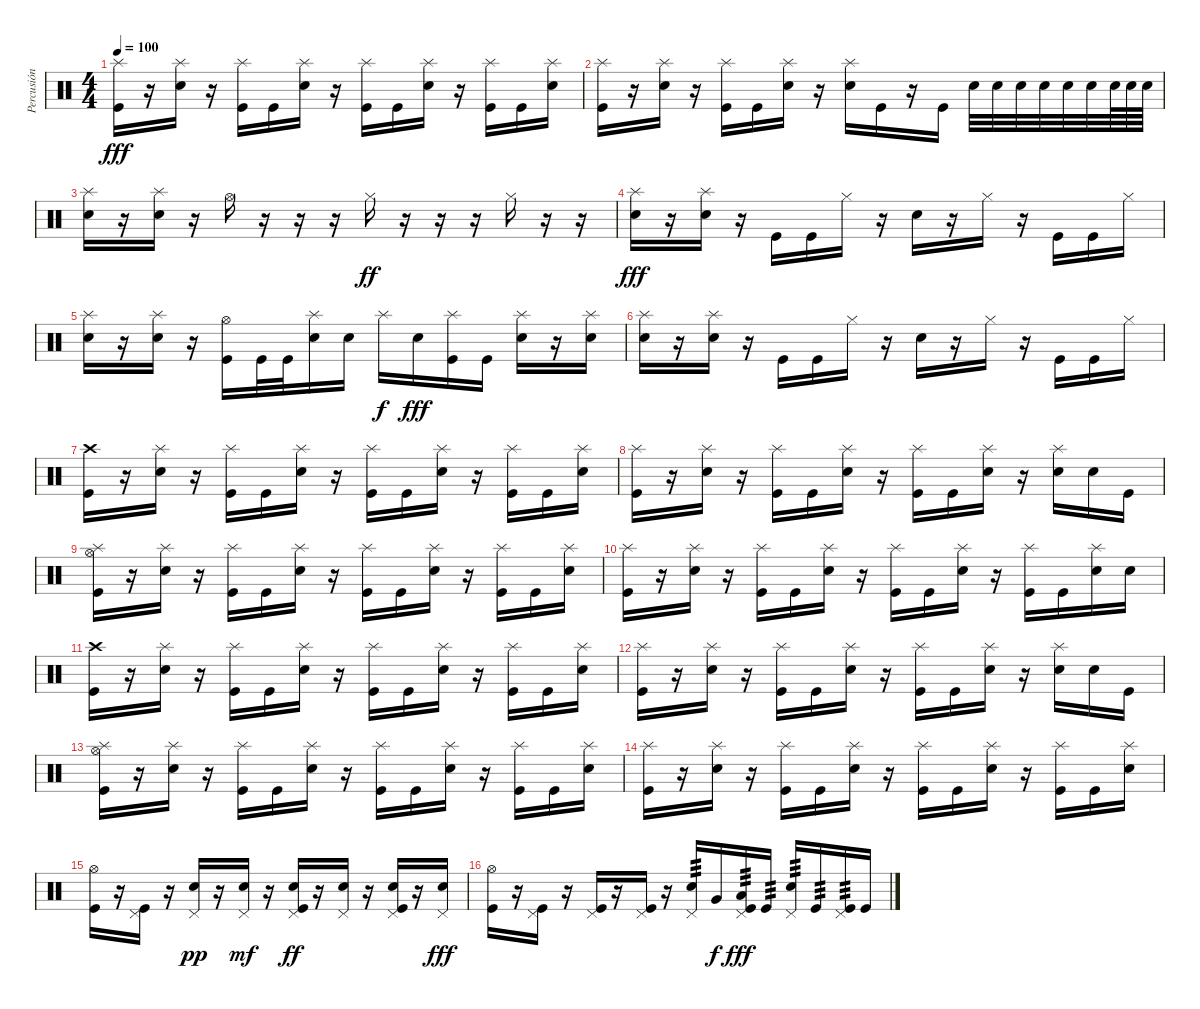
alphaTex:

\track ("Percusión" "Percusión") {instrument percussion}
\staff {score}
\articulation defaults
\ts (4 4)
\tempo 100
\clef neutral
\ks c
("Splash (hit)" "Kick (hit)").16{dy fff} r.16 ("Splash (hit)" "Snare (hit) 2").16 r.16 ("Splash (hit)" "Kick (hit)").16 "Kick (hit)".16 ("Splash (hit)" "Snare (hit) 2").16 r.16 ("Splash (hit)" "Kick (hit)").16 "Kick (hit)".16 ("Splash (hit)" "Snare (hit) 2").16 r.16 ("Splash (hit)" "Kick (hit)").16 "Kick (hit)".16 ("Splash (hit)" "Snare (hit) 2").16 |
("Splash (hit)" "Kick (hit)").16 r.16 ("Splash (hit)" "Snare (hit) 2").16 r.16 ("Splash (hit)" "Kick (hit)").16 "Kick (hit)".16 ("Splash (hit)" "Snare (hit) 2").16 r.16 ("Splash (hit)" "Snare (hit) 2").16 "Kick (hit)".16 r.16 "Kick (hit)".16 "Snare (hit) 2".32 "Snare (hit) 2".32 "Snare (hit) 2".32 "Snare (hit) 2".32 "Snare (hit) 2".32 "Snare (hit) 2".32 "Snare (hit) 2".64 "Snare (hit) 2".64 "Snare (hit) 2".64 |
("Splash (hit)" "Snare (hit) 2").16 r.16 ("Splash (hit)" "Snare (hit) 2").16 r.16 "Hi-Hat (open)".16 r.16 r.16 r.16 "Hi-Hat (closed)".16{dy ff} r.16 r.16 r.16 "Hi-Hat (closed)".16 r.16 r.16 |
("Splash (hit)" "Snare (hit) 2").16{dy fff} r.16 ("Splash (hit)" "Snare (hit) 2").16 r.16 "Kick (hit)".16 "Kick (hit)".16 "Hi-Hat (closed)".16 r.16 "Snare (hit) 2".16 r.16 "Hi-Hat (closed)".16 r.16 "Kick (hit)".16 "Kick (hit)".16 "Hi-Hat (closed)".16 |
("Splash (hit)" "Snare (hit) 2").16 r.16 ("Splash (hit)" "Snare (hit) 2").16 r.16 ("Hi-Hat (open)" "Kick (hit)").16 "Kick (hit)".32 "Kick (hit)".32 ("Splash (hit)" "Snare (hit) 2").16 "Snare (hit) 2".16 "Splash (hit)".16{dy f} "Snare (hit) 2".16{dy fff} ("Splash (hit)" "Kick (hit)").16 "Kick (hit)".16 ("Splash (hit)" "Snare (hit) 2").16 r.16 ("Splash (hit)" "Snare (hit) 2").16 |
("Splash (hit)" "Snare (hit) 2").16 r.16 ("Splash (hit)" "Snare (hit) 2").16 r.16 "Kick (hit)".16 "Kick (hit)".16 "Hi-Hat (closed)".16 r.16 "Snare (hit) 2".16 r.16 "Hi-Hat (closed)".16 r.16 "Kick (hit)".16 "Kick (hit)".16 "Hi-Hat (closed)".16 |
("Crash high (hit)" "Kick (hit)").16 r.16 ("Splash (hit)" "Snare (hit) 2").16 r.16 ("Splash (hit)" "Kick (hit)").16 "Kick (hit)".16 ("Splash (hit)" "Snare (hit) 2").16 r.16 ("Splash (hit)" "Kick (hit)").16 "Kick (hit)".16 ("Splash (hit)" "Snare (hit) 2").16 r.16 ("Splash (hit)" "Kick (hit)").16 "Kick (hit)".16 ("Splash (hit)" "Snare (hit) 2").16 |
("Splash (hit)" "Kick (hit)").16 r.16 ("Splash (hit)" "Snare (hit) 2").16 r.16 ("Splash (hit)" "Kick (hit)").16 "Kick (hit)".16 ("Splash (hit)" "Snare (hit) 2").16 r.16 ("Splash (hit)" "Kick (hit)").16 "Kick (hit)".16 ("Splash (hit)" "Snare (hit) 2").16 r.16 ("Splash (hit)" "Snare (hit) 2").16 "Snare (hit) 2".16 "Kick (hit)".16 |
("Splash (hit)" "Hi-Hat (open)" "Kick (hit)").16 r.16 ("Splash (hit)" "Snare (hit) 2").16 r.16 ("Splash (hit)" "Kick (hit)").16 "Kick (hit)".16 ("Splash (hit)" "Snare (hit) 2").16 r.16 ("Splash (hit)" "Kick (hit)").16 "Kick (hit)".16 ("Splash (hit)" "Snare (hit) 2").16 r.16 ("Splash (hit)" "Kick (hit)").16 "Kick (hit)".16 ("Splash (hit)" "Snare (hit) 2").16 |
("Splash (hit)" "Kick (hit)").16 r.16 ("Splash (hit)" "Snare (hit) 2").16 r.16 ("Splash (hit)" "Kick (hit)").16 "Kick (hit)".16 ("Splash (hit)" "Snare (hit) 2").16 r.16 ("Splash (hit)" "Kick (hit)").16 "Kick (hit)".16 ("Splash (hit)" "Snare (hit) 2").16 r.16 ("Splash (hit)" "Kick (hit)").16 "Kick (hit)".16 ("Splash (hit)" "Snare (hit) 2").16 "Snare (hit) 2".16 |
("Crash high (hit)" "Kick (hit)").16 r.16 ("Splash (hit)" "Snare (hit) 2").16 r.16 ("Splash (hit)" "Kick (hit)").16 "Kick (hit)".16 ("Splash (hit)" "Snare (hit) 2").16 r.16 ("Splash (hit)" "Kick (hit)").16 "Kick (hit)".16 ("Splash (hit)" "Snare (hit) 2").16 r.16 ("Splash (hit)" "Kick (hit)").16 "Kick (hit)".16 ("Splash (hit)" "Snare (hit) 2").16 |
("Splash (hit)" "Kick (hit)").16 r.16 ("Splash (hit)" "Snare (hit) 2").16 r.16 ("Splash (hit)" "Kick (hit)").16 "Kick (hit)".16 ("Splash (hit)" "Snare (hit) 2").16 r.16 ("Splash (hit)" "Kick (hit)").16 "Kick (hit)".16 ("Splash (hit)" "Snare (hit) 2").16 r.16 ("Splash (hit)" "Snare (hit) 2").16 "Snare (hit) 2".16 "Kick (hit)".16 |
("Splash (hit)" "Hi-Hat (open)" "Kick (hit)").16 r.16 ("Splash (hit)" "Snare (hit) 2").16 r.16 ("Splash (hit)" "Kick (hit)").16 "Kick (hit)".16 ("Splash (hit)" "Snare (hit) 2").16 r.16 ("Splash (hit)" "Kick (hit)").16 "Kick (hit)".16 ("Splash (hit)" "Snare (hit) 2").16 r.16 ("Splash (hit)" "Kick (hit)").16 "Kick (hit)".16 ("Splash (hit)" "Snare (hit) 2").16 |
("Splash (hit)" "Kick (hit)").16 r.16 ("Splash (hit)" "Snare (hit) 2").16 r.16 ("Splash (hit)" "Kick (hit)").16 "Kick (hit)".16 ("Splash (hit)" "Snare (hit) 2").16 r.16 ("Splash (hit)" "Kick (hit)").16 "Kick (hit)".16 ("Splash (hit)" "Snare (hit) 2").16 r.16 ("Splash (hit)" "Kick (hit)").16 "Kick (hit)".16 ("Splash (hit)" "Snare (hit) 2").16 |
("Hi-Hat (open)" "Kick (hit)").16 r.16 ("Pedal Hi-Hat (hit)" "Kick (hit)").16 r.16 ("Pedal Hi-Hat (hit)" "Snare (hit) 2").16{dy pp} r.16 ("Pedal Hi-Hat (hit)" "Snare (hit) 2").16{dy mf} r.16 ("Pedal Hi-Hat (hit)" "Snare (hit) 2" "Kick (hit)").16{dy ff} r.16 ("Pedal Hi-Hat (hit)" "Snare (hit) 2").16 r.16 ("Pedal Hi-Hat (hit)" "Snare (hit) 2" "Kick (hit)").16 r.16 ("Pedal Hi-Hat (hit)" "Snare (hit) 2").16{dy fff} |
("Hi-Hat (open)" "Kick (hit)").16 r.16 ("Pedal Hi-Hat (hit)" "Kick (hit)").16 r.16 ("Pedal Hi-Hat (hit)" "Kick (hit)").16 r.16 ("Pedal Hi-Hat (hit)" "Kick (hit)").16 r.16 ("Pedal Hi-Hat (hit)" "Snare (hit) 2").16{tp 3} "Very Low Tom (hit)".16{dy f} ("Pedal Hi-Hat (hit)" "Low Floor Tom (hit)" "Kick (hit)").16{tp 3 dy fff} "Kick (hit)".16{tp 3} ("Pedal Hi-Hat (hit)" "Snare (hit) 2").16{tp 3} "Kick (hit)".16{tp 3} ("Pedal Hi-Hat (hit)" "Kick (hit)").16{tp 3} "Kick (hit)".16
